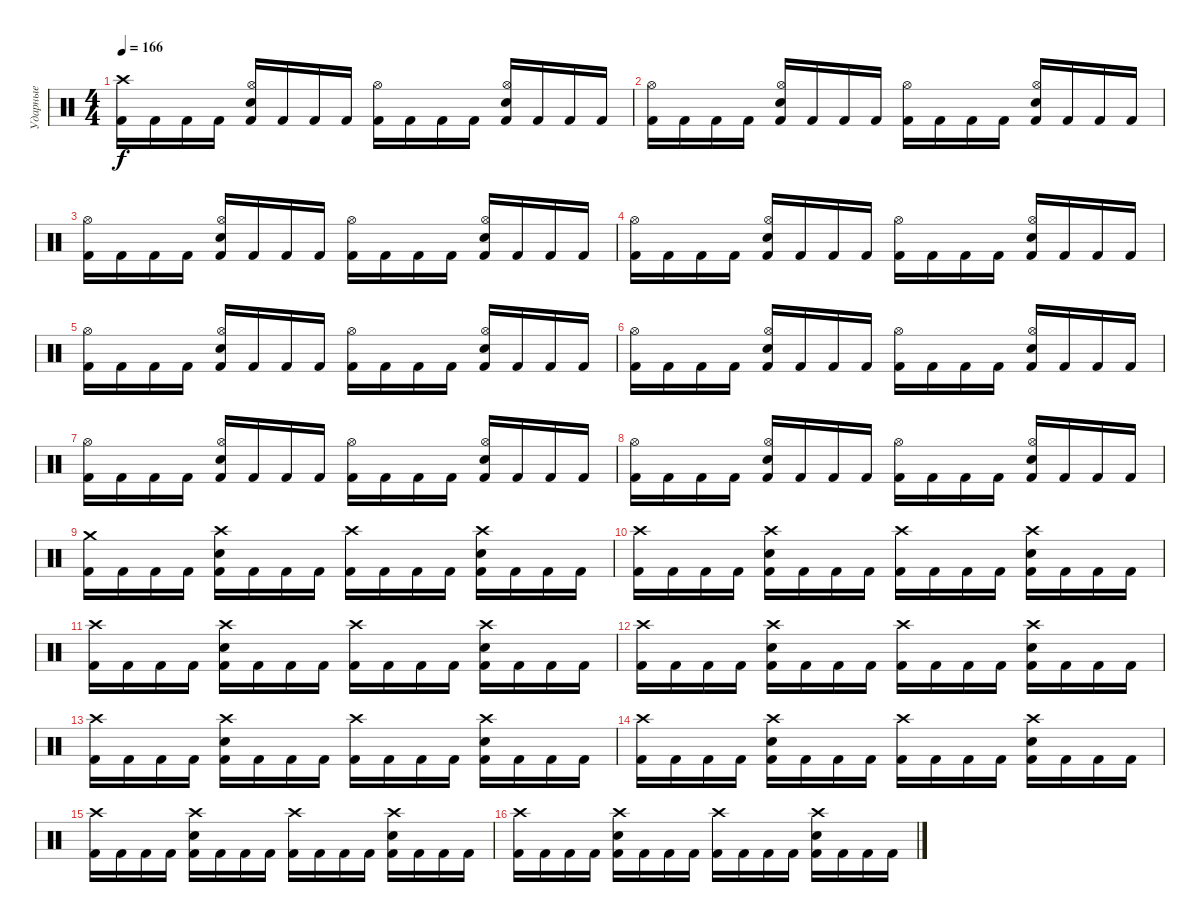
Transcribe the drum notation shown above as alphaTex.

\track ("Ударные" "Ударные") {instrument percussion}
\staff {score}
\articulation defaults
\ts (4 4)
\tempo 166
\clef neutral
\ks c
("Crash high (hit)" "Kick (hit) 2").16{dy f} "Kick (hit) 2".16 "Kick (hit) 2".16 "Kick (hit) 2".16 ("Hi-Hat (open)" "Electric Snare (hit)" "Kick (hit) 2").16 "Kick (hit) 2".16 "Kick (hit) 2".16 "Kick (hit) 2".16 ("Hi-Hat (open)" "Kick (hit) 2").16 "Kick (hit) 2".16 "Kick (hit) 2".16 "Kick (hit) 2".16 ("Hi-Hat (open)" "Electric Snare (hit)" "Kick (hit) 2").16 "Kick (hit) 2".16 "Kick (hit) 2".16 "Kick (hit) 2".16 |
("Hi-Hat (open)" "Kick (hit) 2").16 "Kick (hit) 2".16 "Kick (hit) 2".16 "Kick (hit) 2".16 ("Hi-Hat (open)" "Electric Snare (hit)" "Kick (hit) 2").16 "Kick (hit) 2".16 "Kick (hit) 2".16 "Kick (hit) 2".16 ("Hi-Hat (open)" "Kick (hit) 2").16 "Kick (hit) 2".16 "Kick (hit) 2".16 "Kick (hit) 2".16 ("Hi-Hat (open)" "Electric Snare (hit)" "Kick (hit) 2").16 "Kick (hit) 2".16 "Kick (hit) 2".16 "Kick (hit) 2".16 |
("Hi-Hat (open)" "Kick (hit) 2").16 "Kick (hit) 2".16 "Kick (hit) 2".16 "Kick (hit) 2".16 ("Hi-Hat (open)" "Electric Snare (hit)" "Kick (hit) 2").16 "Kick (hit) 2".16 "Kick (hit) 2".16 "Kick (hit) 2".16 ("Hi-Hat (open)" "Kick (hit) 2").16 "Kick (hit) 2".16 "Kick (hit) 2".16 "Kick (hit) 2".16 ("Hi-Hat (open)" "Electric Snare (hit)" "Kick (hit) 2").16 "Kick (hit) 2".16 "Kick (hit) 2".16 "Kick (hit) 2".16 |
("Hi-Hat (open)" "Kick (hit) 2").16 "Kick (hit) 2".16 "Kick (hit) 2".16 "Kick (hit) 2".16 ("Hi-Hat (open)" "Electric Snare (hit)" "Kick (hit) 2").16 "Kick (hit) 2".16 "Kick (hit) 2".16 "Kick (hit) 2".16 ("Hi-Hat (open)" "Kick (hit) 2").16 "Kick (hit) 2".16 "Kick (hit) 2".16 "Kick (hit) 2".16 ("Hi-Hat (open)" "Electric Snare (hit)" "Kick (hit) 2").16 "Kick (hit) 2".16 "Kick (hit) 2".16 "Kick (hit) 2".16 |
("Hi-Hat (open)" "Kick (hit) 2").16 "Kick (hit) 2".16 "Kick (hit) 2".16 "Kick (hit) 2".16 ("Hi-Hat (open)" "Electric Snare (hit)" "Kick (hit) 2").16 "Kick (hit) 2".16 "Kick (hit) 2".16 "Kick (hit) 2".16 ("Hi-Hat (open)" "Kick (hit) 2").16 "Kick (hit) 2".16 "Kick (hit) 2".16 "Kick (hit) 2".16 ("Hi-Hat (open)" "Electric Snare (hit)" "Kick (hit) 2").16 "Kick (hit) 2".16 "Kick (hit) 2".16 "Kick (hit) 2".16 |
("Hi-Hat (open)" "Kick (hit) 2").16 "Kick (hit) 2".16 "Kick (hit) 2".16 "Kick (hit) 2".16 ("Hi-Hat (open)" "Electric Snare (hit)" "Kick (hit) 2").16 "Kick (hit) 2".16 "Kick (hit) 2".16 "Kick (hit) 2".16 ("Hi-Hat (open)" "Kick (hit) 2").16 "Kick (hit) 2".16 "Kick (hit) 2".16 "Kick (hit) 2".16 ("Hi-Hat (open)" "Electric Snare (hit)" "Kick (hit) 2").16 "Kick (hit) 2".16 "Kick (hit) 2".16 "Kick (hit) 2".16 |
("Hi-Hat (open)" "Kick (hit) 2").16 "Kick (hit) 2".16 "Kick (hit) 2".16 "Kick (hit) 2".16 ("Hi-Hat (open)" "Electric Snare (hit)" "Kick (hit) 2").16 "Kick (hit) 2".16 "Kick (hit) 2".16 "Kick (hit) 2".16 ("Hi-Hat (open)" "Kick (hit) 2").16 "Kick (hit) 2".16 "Kick (hit) 2".16 "Kick (hit) 2".16 ("Hi-Hat (open)" "Electric Snare (hit)" "Kick (hit) 2").16 "Kick (hit) 2".16 "Kick (hit) 2".16 "Kick (hit) 2".16 |
("Hi-Hat (open)" "Kick (hit) 2").16 "Kick (hit) 2".16 "Kick (hit) 2".16 "Kick (hit) 2".16 ("Hi-Hat (open)" "Electric Snare (hit)" "Kick (hit) 2").16 "Kick (hit) 2".16 "Kick (hit) 2".16 "Kick (hit) 2".16 ("Hi-Hat (open)" "Kick (hit) 2").16 "Kick (hit) 2".16 "Kick (hit) 2".16 "Kick (hit) 2".16 ("Hi-Hat (open)" "Electric Snare (hit)" "Kick (hit) 2").16 "Kick (hit) 2".16 "Kick (hit) 2".16 "Kick (hit) 2".16 |
("Crash medium (hit)" "Kick (hit) 2").16 "Kick (hit) 2".16 "Kick (hit) 2".16 "Kick (hit) 2".16 ("Crash high (hit)" "Electric Snare (hit)" "Kick (hit) 2").16 "Kick (hit) 2".16 "Kick (hit) 2".16 "Kick (hit) 2".16 ("Crash high (hit)" "Kick (hit) 2").16 "Kick (hit) 2".16 "Kick (hit) 2".16 "Kick (hit) 2".16 ("Crash high (hit)" "Electric Snare (hit)" "Kick (hit) 2").16 "Kick (hit) 2".16 "Kick (hit) 2".16 "Kick (hit) 2".16 |
("Crash high (hit)" "Kick (hit) 2").16 "Kick (hit) 2".16 "Kick (hit) 2".16 "Kick (hit) 2".16 ("Crash high (hit)" "Electric Snare (hit)" "Kick (hit) 2").16 "Kick (hit) 2".16 "Kick (hit) 2".16 "Kick (hit) 2".16 ("Crash high (hit)" "Kick (hit) 2").16 "Kick (hit) 2".16 "Kick (hit) 2".16 "Kick (hit) 2".16 ("Crash high (hit)" "Electric Snare (hit)" "Kick (hit) 2").16 "Kick (hit) 2".16 "Kick (hit) 2".16 "Kick (hit) 2".16 |
("Crash high (hit)" "Kick (hit) 2").16 "Kick (hit) 2".16 "Kick (hit) 2".16 "Kick (hit) 2".16 ("Crash high (hit)" "Electric Snare (hit)" "Kick (hit) 2").16 "Kick (hit) 2".16 "Kick (hit) 2".16 "Kick (hit) 2".16 ("Crash high (hit)" "Kick (hit) 2").16 "Kick (hit) 2".16 "Kick (hit) 2".16 "Kick (hit) 2".16 ("Crash high (hit)" "Electric Snare (hit)" "Kick (hit) 2").16 "Kick (hit) 2".16 "Kick (hit) 2".16 "Kick (hit) 2".16 |
("Crash high (hit)" "Kick (hit) 2").16 "Kick (hit) 2".16 "Kick (hit) 2".16 "Kick (hit) 2".16 ("Crash high (hit)" "Electric Snare (hit)" "Kick (hit) 2").16 "Kick (hit) 2".16 "Kick (hit) 2".16 "Kick (hit) 2".16 ("Crash high (hit)" "Kick (hit) 2").16 "Kick (hit) 2".16 "Kick (hit) 2".16 "Kick (hit) 2".16 ("Crash high (hit)" "Electric Snare (hit)" "Kick (hit) 2").16 "Kick (hit) 2".16 "Kick (hit) 2".16 "Kick (hit) 2".16 |
("Crash high (hit)" "Kick (hit) 2").16 "Kick (hit) 2".16 "Kick (hit) 2".16 "Kick (hit) 2".16 ("Crash high (hit)" "Electric Snare (hit)" "Kick (hit) 2").16 "Kick (hit) 2".16 "Kick (hit) 2".16 "Kick (hit) 2".16 ("Crash high (hit)" "Kick (hit) 2").16 "Kick (hit) 2".16 "Kick (hit) 2".16 "Kick (hit) 2".16 ("Crash high (hit)" "Electric Snare (hit)" "Kick (hit) 2").16 "Kick (hit) 2".16 "Kick (hit) 2".16 "Kick (hit) 2".16 |
("Crash high (hit)" "Kick (hit) 2").16 "Kick (hit) 2".16 "Kick (hit) 2".16 "Kick (hit) 2".16 ("Crash high (hit)" "Electric Snare (hit)" "Kick (hit) 2").16 "Kick (hit) 2".16 "Kick (hit) 2".16 "Kick (hit) 2".16 ("Crash high (hit)" "Kick (hit) 2").16 "Kick (hit) 2".16 "Kick (hit) 2".16 "Kick (hit) 2".16 ("Crash high (hit)" "Electric Snare (hit)" "Kick (hit) 2").16 "Kick (hit) 2".16 "Kick (hit) 2".16 "Kick (hit) 2".16 |
("Crash high (hit)" "Kick (hit) 2").16 "Kick (hit) 2".16 "Kick (hit) 2".16 "Kick (hit) 2".16 ("Crash high (hit)" "Electric Snare (hit)" "Kick (hit) 2").16 "Kick (hit) 2".16 "Kick (hit) 2".16 "Kick (hit) 2".16 ("Crash high (hit)" "Kick (hit) 2").16 "Kick (hit) 2".16 "Kick (hit) 2".16 "Kick (hit) 2".16 ("Crash high (hit)" "Electric Snare (hit)" "Kick (hit) 2").16 "Kick (hit) 2".16 "Kick (hit) 2".16 "Kick (hit) 2".16 |
("Crash high (hit)" "Kick (hit) 2").16 "Kick (hit) 2".16 "Kick (hit) 2".16 "Kick (hit) 2".16 ("Crash high (hit)" "Electric Snare (hit)" "Kick (hit) 2").16 "Kick (hit) 2".16 "Kick (hit) 2".16 "Kick (hit) 2".16 ("Crash high (hit)" "Kick (hit) 2").16 "Kick (hit) 2".16 "Kick (hit) 2".16 "Kick (hit) 2".16 ("Crash high (hit)" "Electric Snare (hit)" "Kick (hit) 2").16 "Kick (hit) 2".16 "Kick (hit) 2".16 "Kick (hit) 2".16
